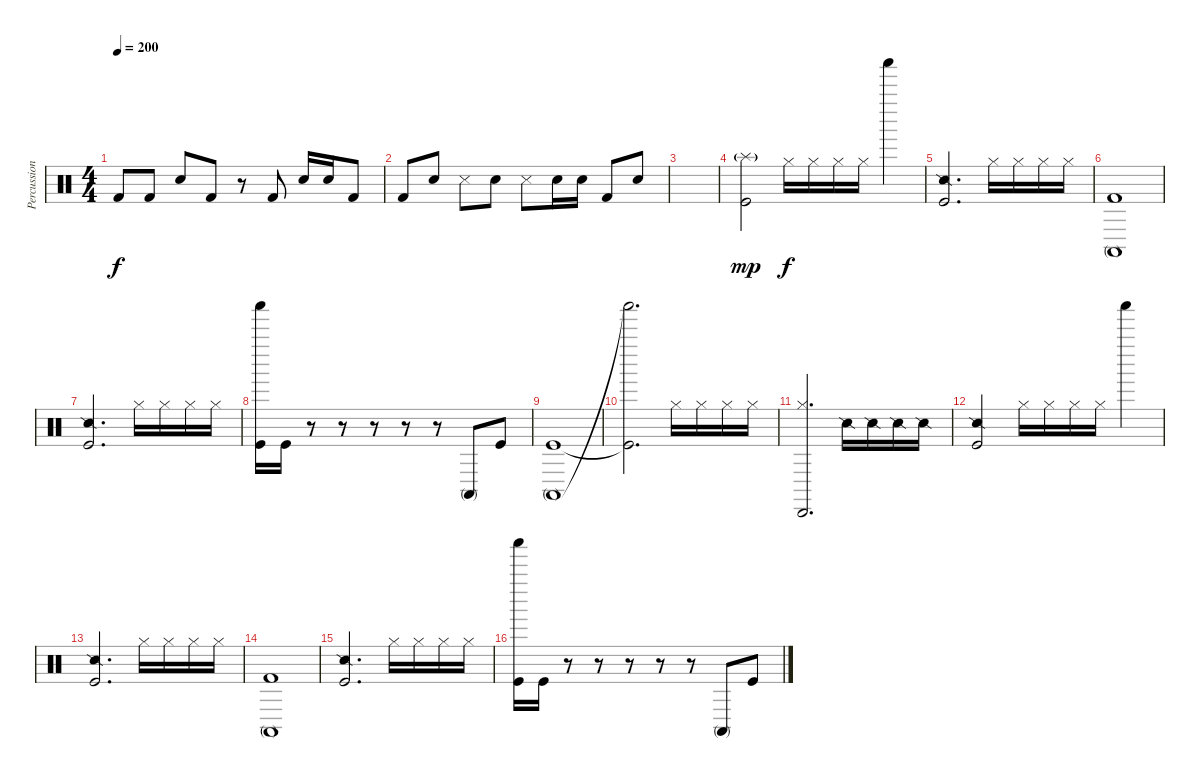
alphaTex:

\track ("Percussion" "Percussion") {instrument percussion}
\staff {score}
\articulation defaults
\ts (4 4)
\tempo 200
\clef neutral
\ks c "Kick (hit) 2".8{dy f} "Kick (hit) 2".8 "Electric Snare (hit)".8 "Kick (hit) 2".8
r.8 "Kick (hit) 2".8 "Electric Snare (hit)".16 "Electric Snare (hit)".16 "Kick (hit) 2".8 |
"Kick (hit) 2".8 "Electric Snare (hit)".8 "Snare (side stick) 3".8 "Electric Snare (hit)".8 "Snare (side stick) 3".8 "Electric Snare (hit)".16 "Electric Snare (hit)".16 "Kick (hit) 2".8 "Electric Snare (hit)".8 |
|
("Splash (hit)"{g} "Kick (hit)").2{dy mp} "Hi-Hat (closed)".16{dy f} "Hi-Hat (closed)".16 "Hi-Hat (closed)".16 "Hi-Hat (closed)".16 "Shaker (hit)".4 |
("Snare (side stick) 2" "Kick (hit)").2{d} "Hi-Hat (closed)".16 "Hi-Hat (closed)".16 "Hi-Hat (closed)".16 "Hi-Hat (closed)".16 |
("Conga high (mute)" "Kick (hit) 2").1 |
("Snare (side stick) 2" "Kick (hit)").2{d} "Hi-Hat (closed)".16 "Hi-Hat (closed)".16 "Hi-Hat (closed)".16 "Hi-Hat (closed)".16 |
("Shaker (hit)" "Kick (hit)").16 "Kick (hit)".16 r.8 r.8 r.8 r.8 r.8 "Conga high (mute)".8 "Kick (hit)".8 |
("Conga high (mute)" "Kick (hit)").1 |
("Shaker (hit)"{t} "Kick (hit)"{t}).2{d} "Hi-Hat (closed)".16 "Hi-Hat (closed)".16 "Hi-Hat (closed)".16 "Hi-Hat (closed)".16 |
("Cabasa (hit)" "Hi-Hat (closed)").2{d} "Snare (side stick) 2".16 "Snare (side stick) 2".16 "Snare (side stick) 2".16 "Snare (side stick) 2".16 |
("Snare (side stick) 2" "Kick (hit)").2 "Hi-Hat (closed)".16 "Hi-Hat (closed)".16 "Hi-Hat (closed)".16 "Hi-Hat (closed)".16 "Shaker (hit)".4 |
("Snare (side stick) 2" "Kick (hit)").2{d} "Hi-Hat (closed)".16 "Hi-Hat (closed)".16 "Hi-Hat (closed)".16 "Hi-Hat (closed)".16 |
("Conga high (mute)" "Kick (hit) 2").1 |
("Snare (side stick) 2" "Kick (hit)").2{d} "Hi-Hat (closed)".16 "Hi-Hat (closed)".16 "Hi-Hat (closed)".16 "Hi-Hat (closed)".16 |
("Shaker (hit)" "Kick (hit)").16 "Kick (hit)".16 r.8 r.8 r.8 r.8 r.8 "Conga high (mute)".8 "Kick (hit)".8
